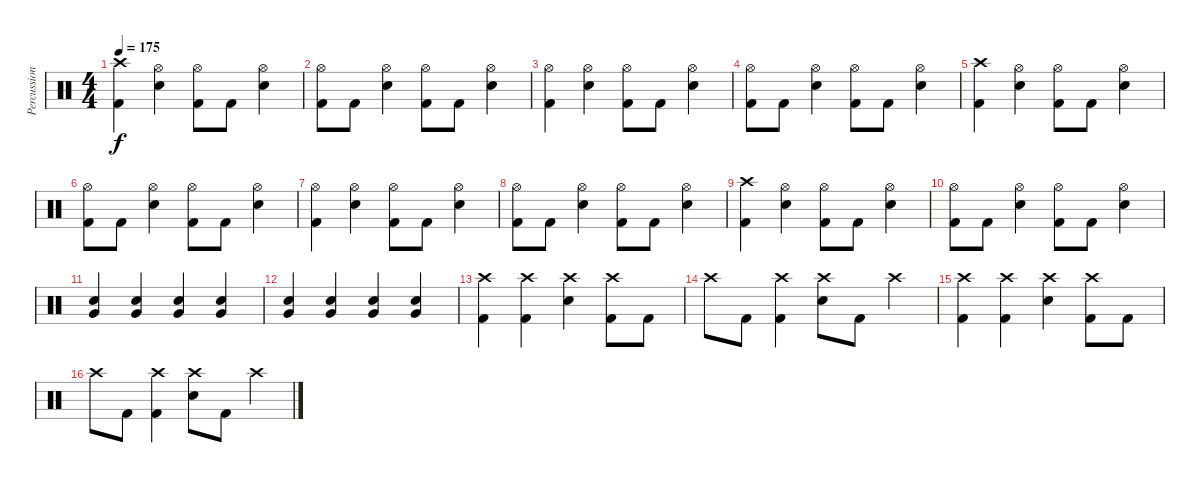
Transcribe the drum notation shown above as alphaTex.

\track ("Percussion" "Percussion") {instrument percussion}
\staff {score}
\articulation defaults
\ts (4 4)
\tempo 175
\clef neutral
\ks c
("Crash high (hit)" "Kick (hit) 2").4{dy f} ("Hi-Hat (open)" "Electric Snare (hit)").4 ("Hi-Hat (open)" "Kick (hit) 2").8 "Kick (hit) 2".8 ("Hi-Hat (open)" "Electric Snare (hit)").4 |
("Hi-Hat (open)" "Kick (hit) 2").8 "Kick (hit) 2".8 ("Hi-Hat (open)" "Electric Snare (hit)").4 ("Hi-Hat (open)" "Kick (hit) 2").8 "Kick (hit) 2".8 ("Hi-Hat (open)" "Electric Snare (hit)").4 |
("Hi-Hat (open)" "Kick (hit) 2").4 ("Hi-Hat (open)" "Electric Snare (hit)").4 ("Hi-Hat (open)" "Kick (hit) 2").8 "Kick (hit) 2".8 ("Hi-Hat (open)" "Electric Snare (hit)").4 |
("Hi-Hat (open)" "Kick (hit) 2").8 "Kick (hit) 2".8 ("Hi-Hat (open)" "Electric Snare (hit)").4 ("Hi-Hat (open)" "Kick (hit) 2").8 "Kick (hit) 2".8 ("Hi-Hat (open)" "Electric Snare (hit)").4 |
("Crash high (hit)" "Kick (hit) 2").4 ("Hi-Hat (open)" "Electric Snare (hit)").4 ("Hi-Hat (open)" "Kick (hit) 2").8 "Kick (hit) 2".8 ("Hi-Hat (open)" "Electric Snare (hit)").4 |
("Hi-Hat (open)" "Kick (hit) 2").8 "Kick (hit) 2".8 ("Hi-Hat (open)" "Electric Snare (hit)").4 ("Hi-Hat (open)" "Kick (hit) 2").8 "Kick (hit) 2".8 ("Hi-Hat (open)" "Electric Snare (hit)").4 |
("Hi-Hat (open)" "Kick (hit) 2").4 ("Hi-Hat (open)" "Electric Snare (hit)").4 ("Hi-Hat (open)" "Kick (hit) 2").8 "Kick (hit) 2".8 ("Hi-Hat (open)" "Electric Snare (hit)").4 |
("Hi-Hat (open)" "Kick (hit) 2").8 "Kick (hit) 2".8 ("Hi-Hat (open)" "Electric Snare (hit)").4 ("Hi-Hat (open)" "Kick (hit) 2").8 "Kick (hit) 2".8 ("Hi-Hat (open)" "Electric Snare (hit)").4 |
("Crash high (hit)" "Kick (hit) 2").4 ("Hi-Hat (open)" "Electric Snare (hit)").4 ("Hi-Hat (open)" "Kick (hit) 2").8 "Kick (hit) 2".8 ("Hi-Hat (open)" "Electric Snare (hit)").4 |
("Hi-Hat (open)" "Kick (hit) 2").8 "Kick (hit) 2".8 ("Hi-Hat (open)" "Electric Snare (hit)").4 ("Hi-Hat (open)" "Kick (hit) 2").8 "Kick (hit) 2".8 ("Hi-Hat (open)" "Electric Snare (hit)").4 |
("Very Low Tom (hit)" "Snare (hit) 2").4 ("Very Low Tom (hit)" "Snare (hit) 2").4 ("Very Low Tom (hit)" "Snare (hit) 2").4 ("Very Low Tom (hit)" "Snare (hit) 2").4 |
("Very Low Tom (hit)" "Snare (hit) 2").4 ("Very Low Tom (hit)" "Snare (hit) 2").4 ("Very Low Tom (hit)" "Snare (hit) 2").4 ("Very Low Tom (hit)" "Snare (hit) 2").4 |
("Crash high (hit)" "Kick (hit) 2").4 ("Crash high (hit)" "Kick (hit) 2").4 ("Crash high (hit)" "Snare (hit) 2").4 ("Crash high (hit)" "Kick (hit) 2").8 "Kick (hit) 2".8 |
"Crash high (hit)".8 "Kick (hit) 2".8 ("Crash high (hit)" "Kick (hit) 2").4 ("Crash high (hit)" "Snare (hit) 2").8 "Kick (hit) 2".8 "Crash high (hit)".4 |
("Crash high (hit)" "Kick (hit) 2").4 ("Crash high (hit)" "Kick (hit) 2").4 ("Crash high (hit)" "Snare (hit) 2").4 ("Crash high (hit)" "Kick (hit) 2").8 "Kick (hit) 2".8 |
"Crash high (hit)".8 "Kick (hit) 2".8 ("Crash high (hit)" "Kick (hit) 2").4 ("Crash high (hit)" "Snare (hit) 2").8 "Kick (hit) 2".8 "Crash high (hit)".4
